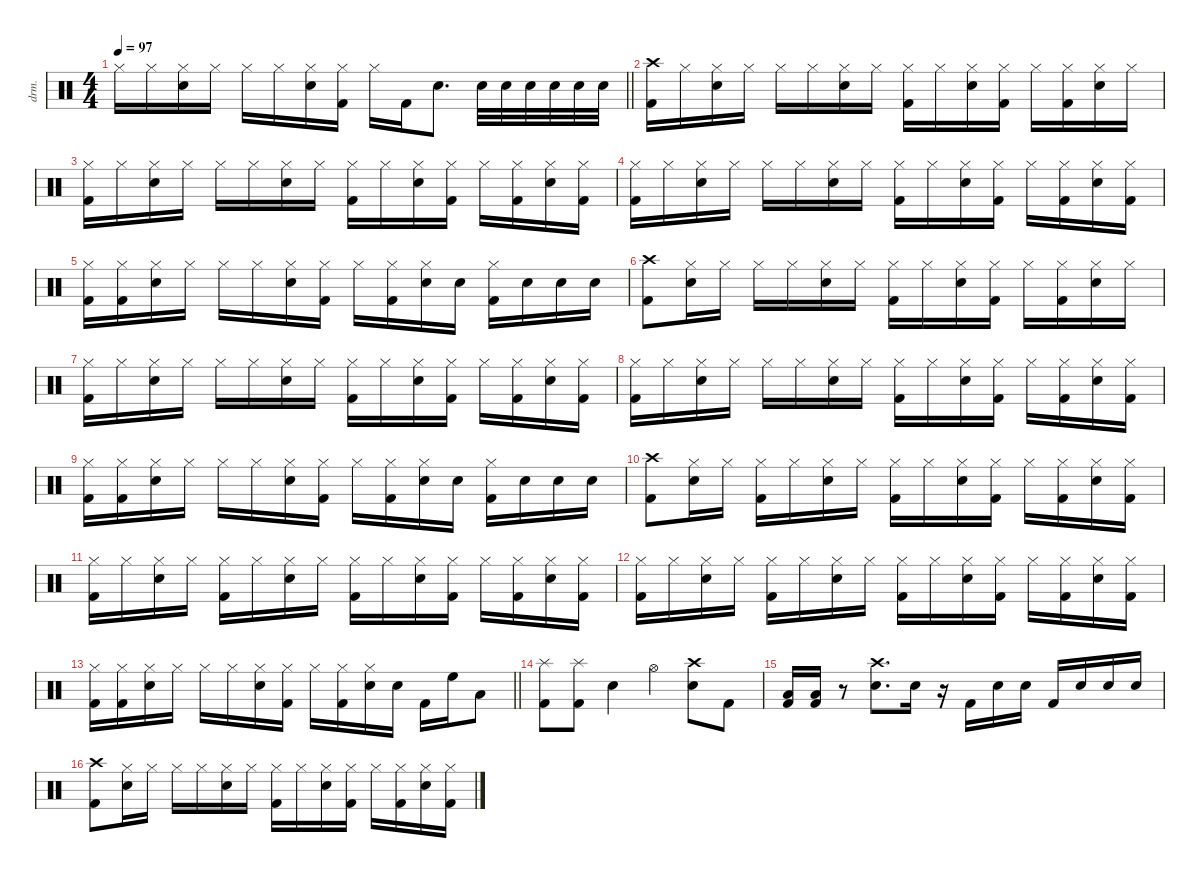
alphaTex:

\defaultSystemsLayout 4
\hideDynamics
\bracketExtendMode nobrackets
\track ("Drumkit" "drm.") {instrument percussion}
\staff {score}
\articulation defaults
\ts (4 4)
\tempo 97
\clef neutral
\barLineRight lightlight
\ks c "Hi-Hat (closed)".16{dy mf beam Down} "Hi-Hat (closed)".16{beam Down}
("Hi-Hat (closed)" "Snare (hit) 2").16{beam Down} "Hi-Hat (closed)".16{beam Down} "Hi-Hat (closed)".16{beam Down} "Hi-Hat (closed)".16{beam Down} ("Hi-Hat (closed)" "Snare (hit) 2").16{beam Down} ("Hi-Hat (closed)" "Kick (hit) 2").16{beam Down} "Hi-Hat (closed)".16{beam Down} "Kick (hit) 2".16{beam Down} "Snare (hit) 2".8{d beam Down} "Snare (hit) 2".32{beam Down} "Snare (hit) 2".32{beam Down} "Snare (hit) 2".32{beam Down} "Snare (hit) 2".32{beam Down} "Snare (hit) 2".32{beam Down} "Snare (hit) 2".32{beam Down} |
("Kick (hit) 2" "Crash high (hit)").16{beam Down} "Hi-Hat (closed)".16{beam Down} ("Hi-Hat (closed)" "Snare (hit) 2").16{beam Down} "Hi-Hat (closed)".16{beam Down} "Hi-Hat (closed)".16{beam Down} "Hi-Hat (closed)".16{beam Down} ("Hi-Hat (closed)" "Snare (hit) 2").16{beam Down} "Hi-Hat (closed)".16{beam Down} ("Hi-Hat (closed)" "Kick (hit) 2").16{beam Down} "Hi-Hat (closed)".16{beam Down} ("Hi-Hat (closed)" "Snare (hit) 2").16{beam Down} ("Hi-Hat (closed)" "Kick (hit) 2").16{beam Down} "Hi-Hat (closed)".16{beam Down} ("Hi-Hat (closed)" "Kick (hit) 2").16{beam Down} ("Hi-Hat (closed)" "Snare (hit) 2").16{beam Down} "Hi-Hat (closed)".16{beam Down} |
("Hi-Hat (closed)" "Kick (hit) 2").16{beam Down} "Hi-Hat (closed)".16{beam Down} ("Hi-Hat (closed)" "Snare (hit) 2").16{beam Down} "Hi-Hat (closed)".16{beam Down} "Hi-Hat (closed)".16{beam Down} "Hi-Hat (closed)".16{beam Down} ("Hi-Hat (closed)" "Snare (hit) 2").16{beam Down} "Hi-Hat (closed)".16{beam Down} ("Hi-Hat (closed)" "Kick (hit) 2").16{beam Down} "Hi-Hat (closed)".16{beam Down} ("Hi-Hat (closed)" "Snare (hit) 2").16{beam Down} ("Hi-Hat (closed)" "Kick (hit) 2").16{beam Down} "Hi-Hat (closed)".16{beam Down} ("Hi-Hat (closed)" "Kick (hit) 2").16{beam Down} ("Hi-Hat (closed)" "Snare (hit) 2").16{beam Down} ("Hi-Hat (closed)" "Kick (hit) 2").16{beam Down} |
("Hi-Hat (closed)" "Kick (hit) 2").16{beam Down} "Hi-Hat (closed)".16{beam Down} ("Hi-Hat (closed)" "Snare (hit) 2").16{beam Down} "Hi-Hat (closed)".16{beam Down} "Hi-Hat (closed)".16{beam Down} "Hi-Hat (closed)".16{beam Down} ("Hi-Hat (closed)" "Snare (hit) 2").16{beam Down} "Hi-Hat (closed)".16{beam Down} ("Hi-Hat (closed)" "Kick (hit) 2").16{beam Down} "Hi-Hat (closed)".16{beam Down} ("Hi-Hat (closed)" "Snare (hit) 2").16{beam Down} ("Hi-Hat (closed)" "Kick (hit) 2").16{beam Down} "Hi-Hat (closed)".16{beam Down} ("Hi-Hat (closed)" "Kick (hit) 2").16{beam Down} ("Hi-Hat (closed)" "Snare (hit) 2").16{beam Down} ("Hi-Hat (closed)" "Kick (hit) 2").16{beam Down} |
("Hi-Hat (closed)" "Kick (hit) 2").16{beam Down} ("Hi-Hat (closed)" "Kick (hit) 2").16{beam Down} ("Hi-Hat (closed)" "Snare (hit) 2").16{beam Down} "Hi-Hat (closed)".16{beam Down} "Hi-Hat (closed)".16{beam Down} "Hi-Hat (closed)".16{beam Down} ("Hi-Hat (closed)" "Snare (hit) 2").16{beam Down} ("Hi-Hat (closed)" "Kick (hit) 2").16{beam Down} "Hi-Hat (closed)".16{beam Down} ("Hi-Hat (closed)" "Kick (hit) 2").16{beam Down} ("Hi-Hat (closed)" "Snare (hit) 2").16{beam Down} "Snare (hit) 2".16{beam Down} ("Hi-Hat (closed)" "Kick (hit) 2").16{beam Down} "Snare (hit) 2".16{beam Down} "Snare (hit) 2".16{beam Down} "Snare (hit) 2".16{beam Down} |
("Kick (hit) 2" "Crash high (hit)").8{beam Down} ("Hi-Hat (closed)" "Snare (hit) 2").16{beam Down} "Hi-Hat (closed)".16{beam Down} "Hi-Hat (closed)".16{beam Down} "Hi-Hat (closed)".16{beam Down} ("Hi-Hat (closed)" "Snare (hit) 2").16{beam Down} "Hi-Hat (closed)".16{beam Down} ("Hi-Hat (closed)" "Kick (hit) 2").16{beam Down} "Hi-Hat (closed)".16{beam Down} ("Hi-Hat (closed)" "Snare (hit) 2").16{beam Down} ("Hi-Hat (closed)" "Kick (hit) 2").16{beam Down} "Hi-Hat (closed)".16{beam Down} ("Hi-Hat (closed)" "Kick (hit) 2").16{beam Down} ("Hi-Hat (closed)" "Snare (hit) 2").16{beam Down} "Hi-Hat (closed)".16{beam Down} |
("Hi-Hat (closed)" "Kick (hit) 2").16{beam Down} "Hi-Hat (closed)".16{beam Down} ("Hi-Hat (closed)" "Snare (hit) 2").16{beam Down} "Hi-Hat (closed)".16{beam Down} "Hi-Hat (closed)".16{beam Down} "Hi-Hat (closed)".16{beam Down} ("Hi-Hat (closed)" "Snare (hit) 2").16{beam Down} "Hi-Hat (closed)".16{beam Down} ("Hi-Hat (closed)" "Kick (hit) 2").16{beam Down} "Hi-Hat (closed)".16{beam Down} ("Hi-Hat (closed)" "Snare (hit) 2").16{beam Down} ("Hi-Hat (closed)" "Kick (hit) 2").16{beam Down} "Hi-Hat (closed)".16{beam Down} ("Hi-Hat (closed)" "Kick (hit) 2").16{beam Down} ("Hi-Hat (closed)" "Snare (hit) 2").16{beam Down} ("Hi-Hat (closed)" "Kick (hit) 2").16{beam Down} |
("Hi-Hat (closed)" "Kick (hit) 2").16{beam Down} "Hi-Hat (closed)".16{beam Down} ("Hi-Hat (closed)" "Snare (hit) 2").16{beam Down} "Hi-Hat (closed)".16{beam Down} "Hi-Hat (closed)".16{beam Down} "Hi-Hat (closed)".16{beam Down} ("Hi-Hat (closed)" "Snare (hit) 2").16{beam Down} "Hi-Hat (closed)".16{beam Down} ("Hi-Hat (closed)" "Kick (hit) 2").16{beam Down} "Hi-Hat (closed)".16{beam Down} ("Hi-Hat (closed)" "Snare (hit) 2").16{beam Down} ("Hi-Hat (closed)" "Kick (hit) 2").16{beam Down} "Hi-Hat (closed)".16{beam Down} ("Hi-Hat (closed)" "Kick (hit) 2").16{beam Down} ("Hi-Hat (closed)" "Snare (hit) 2").16{beam Down} ("Hi-Hat (closed)" "Kick (hit) 2").16{beam Down} |
("Hi-Hat (closed)" "Kick (hit) 2").16{beam Down} ("Hi-Hat (closed)" "Kick (hit) 2").16{beam Down} ("Hi-Hat (closed)" "Snare (hit) 2").16{beam Down} "Hi-Hat (closed)".16{beam Down} "Hi-Hat (closed)".16{beam Down} "Hi-Hat (closed)".16{beam Down} ("Hi-Hat (closed)" "Snare (hit) 2").16{beam Down} ("Hi-Hat (closed)" "Kick (hit) 2").16{beam Down} "Hi-Hat (closed)".16{beam Down} ("Hi-Hat (closed)" "Kick (hit) 2").16{beam Down} ("Hi-Hat (closed)" "Snare (hit) 2").16{beam Down} "Snare (hit) 2".16{beam Down} ("Hi-Hat (closed)" "Kick (hit) 2").16{beam Down} "Snare (hit) 2".16{beam Down} "Snare (hit) 2".16{beam Down} "Snare (hit) 2".16{beam Down} |
("Kick (hit) 2" "Crash high (hit)").8{beam Down} ("Hi-Hat (closed)" "Snare (hit) 2").16{beam Down} "Hi-Hat (closed)".16{beam Down} ("Hi-Hat (closed)" "Kick (hit) 2").16{beam Down} "Hi-Hat (closed)".16{beam Down} ("Hi-Hat (closed)" "Snare (hit) 2").16{beam Down} "Hi-Hat (closed)".16{beam Down} ("Hi-Hat (closed)" "Kick (hit) 2").16{beam Down} "Hi-Hat (closed)".16{beam Down} ("Hi-Hat (closed)" "Snare (hit) 2").16{beam Down} ("Hi-Hat (closed)" "Kick (hit) 2").16{beam Down} "Hi-Hat (closed)".16{beam Down} ("Hi-Hat (closed)" "Kick (hit) 2").16{beam Down} ("Hi-Hat (closed)" "Snare (hit) 2").16{beam Down} ("Hi-Hat (closed)" "Kick (hit) 2").16{beam Down} |
("Kick (hit) 2" "Hi-Hat (closed)").16{beam Down} "Hi-Hat (closed)".16{beam Down} ("Hi-Hat (closed)" "Snare (hit) 2").16{beam Down} "Hi-Hat (closed)".16{beam Down} ("Hi-Hat (closed)" "Kick (hit) 2").16{beam Down} "Hi-Hat (closed)".16{beam Down} ("Hi-Hat (closed)" "Snare (hit) 2").16{beam Down} "Hi-Hat (closed)".16{beam Down} ("Hi-Hat (closed)" "Kick (hit) 2").16{beam Down} "Hi-Hat (closed)".16{beam Down} ("Hi-Hat (closed)" "Snare (hit) 2").16{beam Down} ("Hi-Hat (closed)" "Kick (hit) 2").16{beam Down} "Hi-Hat (closed)".16{beam Down} ("Hi-Hat (closed)" "Kick (hit) 2").16{beam Down} ("Hi-Hat (closed)" "Snare (hit) 2").16{beam Down} ("Hi-Hat (closed)" "Kick (hit) 2").16{beam Down} |
("Kick (hit) 2" "Hi-Hat (closed)").16{beam Down} "Hi-Hat (closed)".16{beam Down} ("Hi-Hat (closed)" "Snare (hit) 2").16{beam Down} "Hi-Hat (closed)".16{beam Down} ("Hi-Hat (closed)" "Kick (hit) 2").16{beam Down} "Hi-Hat (closed)".16{beam Down} ("Hi-Hat (closed)" "Snare (hit) 2").16{beam Down} "Hi-Hat (closed)".16{beam Down} ("Hi-Hat (closed)" "Kick (hit) 2").16{beam Down} "Hi-Hat (closed)".16{beam Down} ("Hi-Hat (closed)" "Snare (hit) 2").16{beam Down} ("Hi-Hat (closed)" "Kick (hit) 2").16{beam Down} "Hi-Hat (closed)".16{beam Down} ("Hi-Hat (closed)" "Kick (hit) 2").16{beam Down} ("Hi-Hat (closed)" "Snare (hit) 2").16{beam Down} ("Hi-Hat (closed)" "Kick (hit) 2").16{beam Down} |
\barLineRight lightlight
("Hi-Hat (closed)" "Kick (hit) 2").16{beam Down} ("Hi-Hat (closed)" "Kick (hit) 2").16{beam Down} ("Hi-Hat (closed)" "Snare (hit) 2").16{beam Down} "Hi-Hat (closed)".16{beam Down} "Hi-Hat (closed)".16{beam Down} "Hi-Hat (closed)".16{beam Down} ("Hi-Hat (closed)" "Snare (hit) 2").16{beam Down} ("Hi-Hat (closed)" "Kick (hit) 2").16{beam Down} "Hi-Hat (closed)".16{beam Down} ("Hi-Hat (closed)" "Kick (hit) 2").16{beam Down} ("Hi-Hat (closed)" "Snare (hit) 2").16{beam Down} "Snare (hit) 2".16{beam Down} "Kick (hit) 2".16{beam Down} "High Floor Tom (hit)".16{beam Down} "Low Tom (hit)".8{beam Down} |
("Kick (hit) 2" "Splash (hit)").8{beam Down} ("Kick (hit) 2" "Splash (hit)").8{beam Down} "Snare (hit) 2".4{beam Down} "Hi-Hat (open)".4{beam Down} ("Crash high (hit)" "Snare (hit) 2").8{beam Down} "Kick (hit) 2".8{beam Down} |
("Kick (hit) 2" "Low Tom (hit)").16{beam Up} ("Kick (hit) 2" "Low Tom (hit)").16{beam Up} r.8{beam Down} ("Snare (hit) 2" "Crash high (hit)").8{d beam Down} "Snare (hit) 2".16{beam Down} r.16{beam Down} "Kick (hit) 2".16{beam Up} "Snare (hit) 2".16{beam Up} "Snare (hit) 2".16{beam Up} "Kick (hit) 2".16{beam Up} "Snare (hit) 2".16{beam Up} "Snare (hit) 2".16{beam Up} "Snare (hit) 2".16{beam Up} |
("Kick (hit) 2" "Crash high (hit)").8{beam Down} ("Hi-Hat (closed)" "Snare (hit) 2").16{beam Down} "Hi-Hat (closed)".16{beam Down} "Hi-Hat (closed)".16{beam Down} "Hi-Hat (closed)".16{beam Down} ("Hi-Hat (closed)" "Snare (hit) 2").16{beam Down} "Hi-Hat (closed)".16{beam Down} ("Hi-Hat (closed)" "Kick (hit) 2").16{beam Down} "Hi-Hat (closed)".16{beam Down} ("Hi-Hat (closed)" "Snare (hit) 2").16{beam Down} ("Hi-Hat (closed)" "Kick (hit) 2").16{beam Down} "Hi-Hat (closed)".16{beam Down} ("Hi-Hat (closed)" "Kick (hit) 2").16{beam Down} ("Hi-Hat (closed)" "Snare (hit) 2").16{beam Down} ("Hi-Hat (closed)" "Kick (hit) 2").16{beam Down}
